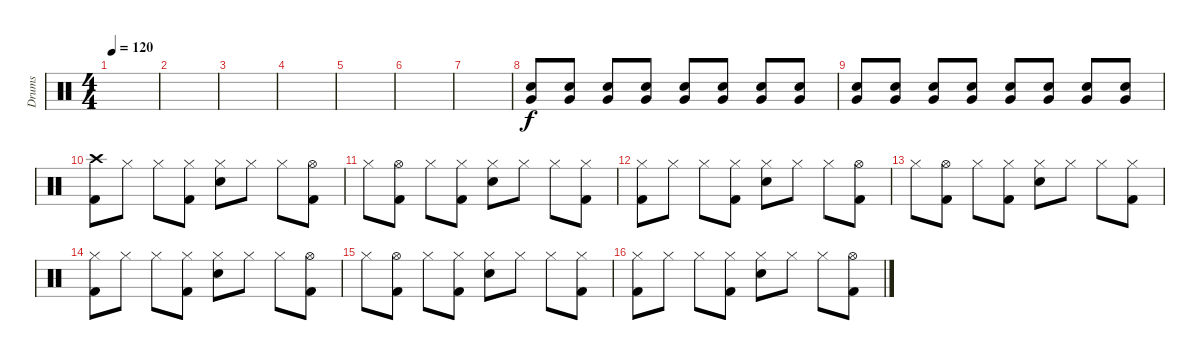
\track ("Drums" "Drums") {instrument percussion}
\staff {score}
\articulation defaults
\ts (4 4)
\tempo 120
\clef neutral
\ks c
|
|
|
|
|
|
|
("Very Low Tom (hit)" "Electric Snare (hit)").8 ("Very Low Tom (hit)" "Electric Snare (hit)").8 ("Very Low Tom (hit)" "Electric Snare (hit)").8 ("Very Low Tom (hit)" "Electric Snare (hit)").8 ("Very Low Tom (hit)" "Electric Snare (hit)").8 ("Very Low Tom (hit)" "Electric Snare (hit)").8 ("Very Low Tom (hit)" "Electric Snare (hit)").8 ("Very Low Tom (hit)" "Electric Snare (hit)").8 |
("Very Low Tom (hit)" "Electric Snare (hit)").8 ("Very Low Tom (hit)" "Electric Snare (hit)").8 ("Very Low Tom (hit)" "Electric Snare (hit)").8 ("Very Low Tom (hit)" "Electric Snare (hit)").8 ("Very Low Tom (hit)" "Electric Snare (hit)").8 ("Very Low Tom (hit)" "Electric Snare (hit)").8 ("Very Low Tom (hit)" "Electric Snare (hit)").8 ("Very Low Tom (hit)" "Electric Snare (hit)").8 |
("Crash high (hit)" "Kick (hit) 2").8 "Hi-Hat (closed)".8 "Hi-Hat (closed)".8 ("Hi-Hat (closed)" "Kick (hit) 2").8 ("Hi-Hat (closed)" "Electric Snare (hit)").8 "Hi-Hat (closed)".8 "Hi-Hat (closed)".8 ("Hi-Hat (open)" "Kick (hit) 2").8 |
"Hi-Hat (closed)".8 ("Hi-Hat (open)" "Kick (hit) 2").8 "Hi-Hat (closed)".8 ("Hi-Hat (closed)" "Kick (hit) 2").8 ("Hi-Hat (closed)" "Electric Snare (hit)").8 "Hi-Hat (closed)".8 "Hi-Hat (closed)".8 ("Hi-Hat (closed)" "Kick (hit) 2").8 |
("Hi-Hat (closed)" "Kick (hit) 2").8 "Hi-Hat (closed)".8 "Hi-Hat (closed)".8 ("Hi-Hat (closed)" "Kick (hit) 2").8 ("Hi-Hat (closed)" "Electric Snare (hit)").8 "Hi-Hat (closed)".8 "Hi-Hat (closed)".8 ("Hi-Hat (open)" "Kick (hit) 2").8 |
"Hi-Hat (closed)".8 ("Hi-Hat (open)" "Kick (hit) 2").8 "Hi-Hat (closed)".8 ("Hi-Hat (closed)" "Kick (hit) 2").8 ("Hi-Hat (closed)" "Electric Snare (hit)").8 "Hi-Hat (closed)".8 "Hi-Hat (closed)".8 ("Hi-Hat (closed)" "Kick (hit) 2").8 |
("Hi-Hat (closed)" "Kick (hit) 2").8 "Hi-Hat (closed)".8 "Hi-Hat (closed)".8 ("Hi-Hat (closed)" "Kick (hit) 2").8 ("Hi-Hat (closed)" "Electric Snare (hit)").8 "Hi-Hat (closed)".8 "Hi-Hat (closed)".8 ("Hi-Hat (open)" "Kick (hit) 2").8 |
"Hi-Hat (closed)".8 ("Hi-Hat (open)" "Kick (hit) 2").8 "Hi-Hat (closed)".8 ("Hi-Hat (closed)" "Kick (hit) 2").8 ("Hi-Hat (closed)" "Electric Snare (hit)").8 "Hi-Hat (closed)".8 "Hi-Hat (closed)".8 ("Hi-Hat (closed)" "Kick (hit) 2").8 |
("Hi-Hat (closed)" "Kick (hit) 2").8 "Hi-Hat (closed)".8 "Hi-Hat (closed)".8 ("Hi-Hat (closed)" "Kick (hit) 2").8 ("Hi-Hat (closed)" "Electric Snare (hit)").8 "Hi-Hat (closed)".8 "Hi-Hat (closed)".8 ("Hi-Hat (open)" "Kick (hit) 2").8
